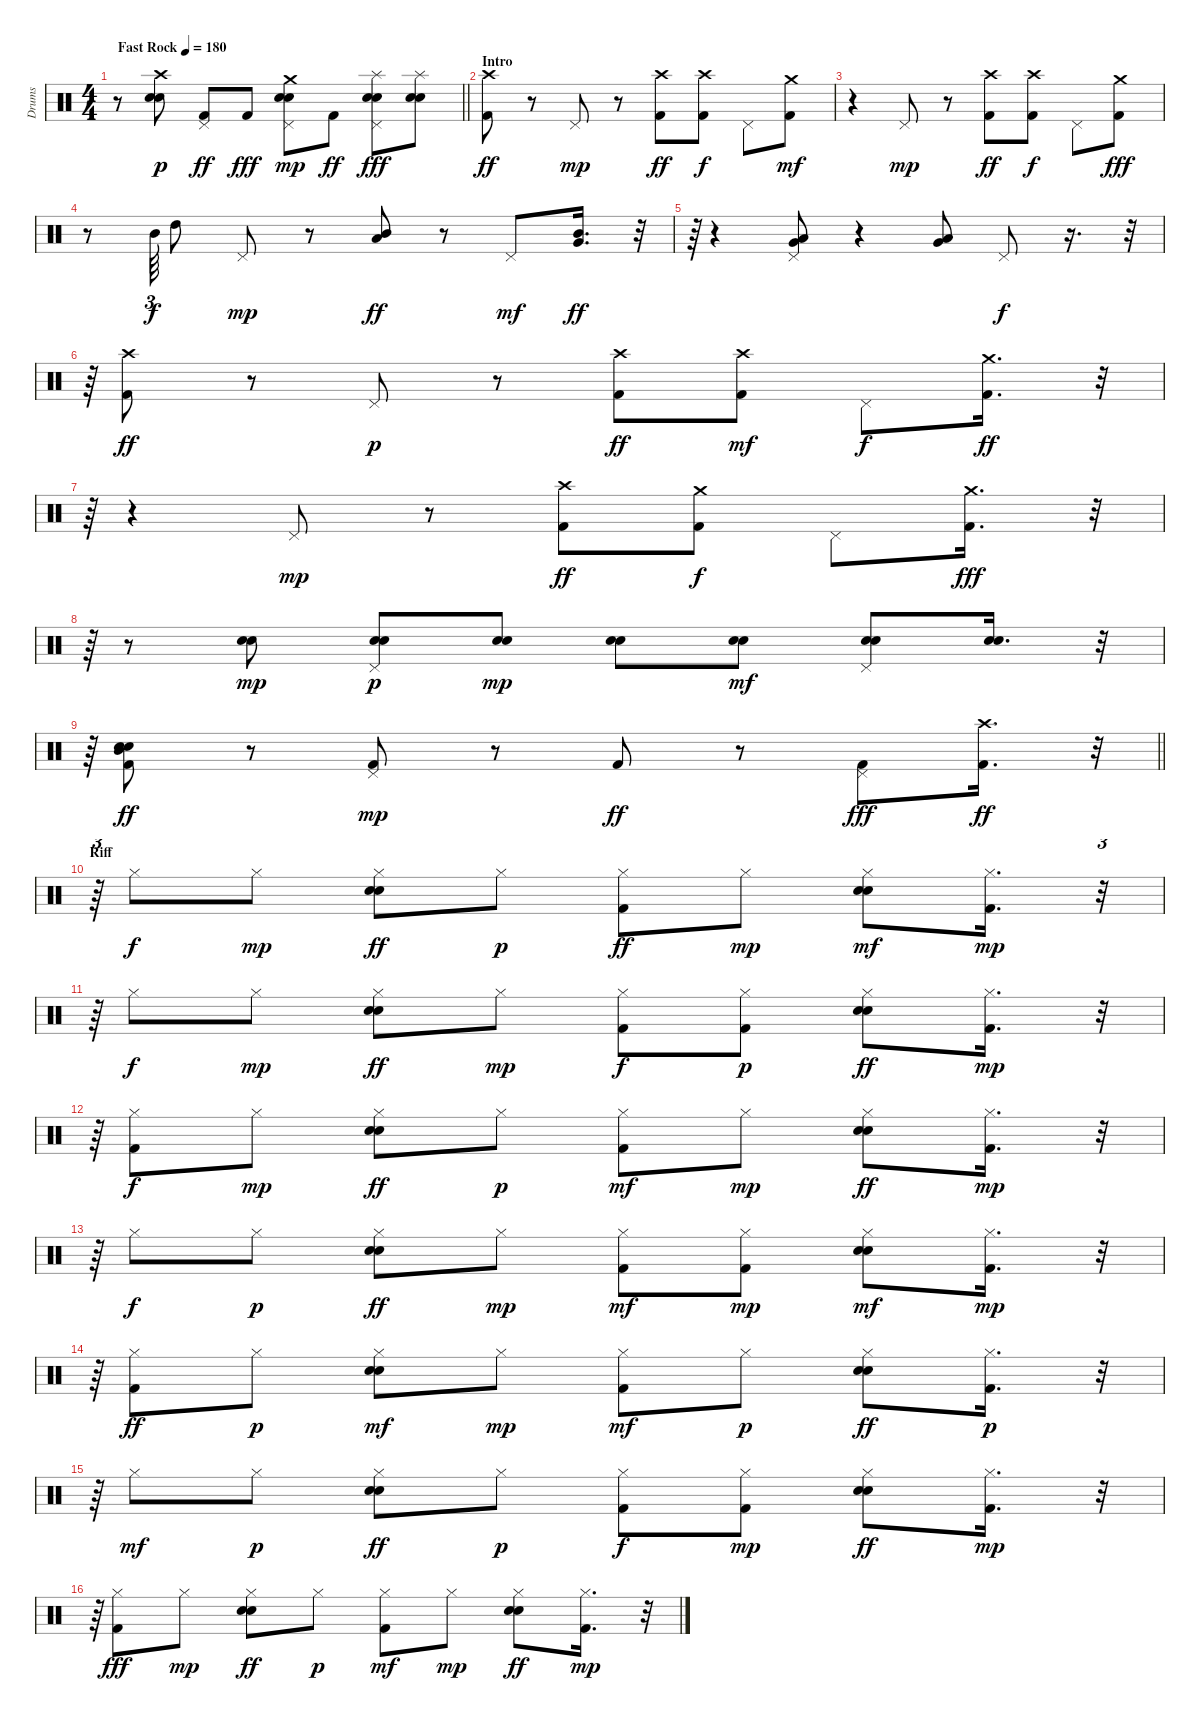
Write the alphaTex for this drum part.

\track ("Drums" "Drums") {instrument percussion}
\staff {score}
\articulation defaults
\ts (4 4)
\tempo (180 "Fast Rock")
\clef neutral
\barLineRight lightlight
\ks c
r.8{dy p} ("Electric Snare (hit)" "Snare (hit) 2" "Crash high (hit)").8{volume 14 balance 8} ("Kick (hit) 2" "Pedal Hi-Hat (hit)").8{dy ff} "Kick (hit) 2".8{dy fff} ("Electric Snare (hit)" "Snare (hit) 2" "Pedal Hi-Hat (hit)" "Crash medium (hit)").8{dy mp} "Kick (hit) 2".8{dy ff} ("Electric Snare (hit)" "Snare (hit) 2" "Pedal Hi-Hat (hit)" "Splash (hit)").8{dy fff} ("Electric Snare (hit)" "Snare (hit) 2" "Splash (hit)").8 |
\section ("" "Intro")
("Kick (hit) 2" "Crash high (hit)").8{dy ff} r.8 "Pedal Hi-Hat (hit)".8{dy mp} r.8 ("Kick (hit) 2" "Crash high (hit)").8{dy ff} ("Kick (hit) 2" "Crash high (hit)").8{dy f} "Pedal Hi-Hat (hit)".8 ("Kick (hit) 2" "Crash medium (hit)").8{dy mf} |
r.4 "Pedal Hi-Hat (hit)".8{dy mp} r.8 ("Kick (hit) 2" "Crash high (hit)").8{dy ff} ("Kick (hit) 2" "Crash high (hit)").8{dy f} "Pedal Hi-Hat (hit)".8 ("Kick (hit) 2" "Crash medium (hit)").8{dy fff} |
r.8 "Mid Tom (hit)".64{tu (3 2) dy f} "High Tom (hit)".8 "Pedal Hi-Hat (hit)".8{dy mp} r.8 ("Low Tom (hit)" "Mid Tom (hit)").8{dy ff} r.8 "Pedal Hi-Hat (hit)".8{dy mf} ("Very Low Tom (hit)" "Mid Tom (hit)").16{d dy ff} r.32{tu (3 2)} |
r.64{tu (3 2)} r.4 ("Very Low Tom (hit)" "Pedal Hi-Hat (hit)" "Low Tom (hit)").8 r.4 ("Low Floor Tom (hit)" "Very Low Tom (hit)").8 "Pedal Hi-Hat (hit)".8{dy f} r.16{d} r.32{tu (3 2)} |
r.64{tu (3 2)} ("Kick (hit) 2" "Crash high (hit)").8{dy ff} r.8 "Pedal Hi-Hat (hit)".8{dy p} r.8 ("Kick (hit) 2" "Crash high (hit)").8{dy ff} ("Kick (hit) 2" "Crash high (hit)").8{dy mf} "Pedal Hi-Hat (hit)".8{dy f} ("Kick (hit) 2" "Crash medium (hit)").16{d dy ff} r.32{tu (3 2)} |
r.64{tu (3 2)} r.4 "Pedal Hi-Hat (hit)".8{dy mp} r.8 ("Kick (hit) 2" "Crash high (hit)").8{dy ff} ("Kick (hit) 2" "Crash medium (hit)").8{dy f} "Pedal Hi-Hat (hit)".8 ("Kick (hit) 2" "Crash medium (hit)").16{d dy fff} r.32{tu (3 2)} |
r.64{tu (3 2)} r.8 ("Electric Snare (hit)" "Snare (hit) 2").8{dy mp} ("Electric Snare (hit)" "Snare (hit) 2" "Pedal Hi-Hat (hit)").8{dy p} ("Electric Snare (hit)" "Snare (hit) 2").8{dy mp} ("Electric Snare (hit)" "Snare (hit) 2").8 ("Electric Snare (hit)" "Snare (hit) 2").8{dy mf} ("Electric Snare (hit)" "Snare (hit) 2" "Pedal Hi-Hat (hit)").8 ("Electric Snare (hit)" "Snare (hit) 2").16{d} r.32{tu (3 2)} |
\barLineRight lightlight
r.64{tu (3 2)} ("Mid Tom (hit)" "Kick (hit) 2" "Electric Snare (hit)" "Snare (hit) 2").8{dy ff} r.8 ("Kick (hit) 2" "Pedal Hi-Hat (hit)").8{dy mp} r.8 "Kick (hit) 2".8{dy ff} r.8 ("Kick (hit) 2" "Pedal Hi-Hat (hit)").8{dy fff} ("Kick (hit) 2" "Crash high (hit)").16{d dy ff} r.32{tu (3 2)} |
\section ("" "Riff")
r.64{tu (3 2)} "Hi-Hat (closed)".8{dy f} "Hi-Hat (closed)".8{dy mp} ("Electric Snare (hit)" "Snare (hit) 2" "Hi-Hat (closed)").8{dy ff} "Hi-Hat (closed)".8{dy p} ("Kick (hit) 2" "Hi-Hat (closed)").8{dy ff} "Hi-Hat (closed)".8{dy mp} ("Electric Snare (hit)" "Snare (hit) 2" "Hi-Hat (closed)").8{dy mf} ("Kick (hit) 2" "Hi-Hat (closed)").16{d dy mp} r.32{tu (3 2)} |
r.64{tu (3 2)} "Hi-Hat (closed)".8{dy f} "Hi-Hat (closed)".8{dy mp} ("Electric Snare (hit)" "Snare (hit) 2" "Hi-Hat (closed)").8{dy ff} "Hi-Hat (closed)".8{dy mp} ("Kick (hit) 2" "Hi-Hat (closed)").8{dy f} ("Kick (hit) 2" "Hi-Hat (closed)").8{dy p} ("Electric Snare (hit)" "Snare (hit) 2" "Hi-Hat (closed)").8{dy ff} ("Kick (hit) 2" "Hi-Hat (closed)").16{d dy mp} r.32{tu (3 2)} |
r.64{tu (3 2)} ("Kick (hit) 2" "Hi-Hat (closed)").8{dy f} "Hi-Hat (closed)".8{dy mp} ("Electric Snare (hit)" "Snare (hit) 2" "Hi-Hat (closed)").8{dy ff} "Hi-Hat (closed)".8{dy p} ("Kick (hit) 2" "Hi-Hat (closed)").8{dy mf} "Hi-Hat (closed)".8{dy mp} ("Electric Snare (hit)" "Snare (hit) 2" "Hi-Hat (closed)").8{dy ff} ("Kick (hit) 2" "Hi-Hat (closed)").16{d dy mp} r.32{tu (3 2)} |
r.64{tu (3 2)} "Hi-Hat (closed)".8{dy f} "Hi-Hat (closed)".8{dy p} ("Electric Snare (hit)" "Snare (hit) 2" "Hi-Hat (closed)").8{dy ff} "Hi-Hat (closed)".8{dy mp} ("Kick (hit) 2" "Hi-Hat (closed)").8{dy mf} ("Kick (hit) 2" "Hi-Hat (closed)").8{dy mp} ("Electric Snare (hit)" "Snare (hit) 2" "Hi-Hat (closed)").8{dy mf} ("Kick (hit) 2" "Hi-Hat (closed)").16{d dy mp} r.32{tu (3 2)} |
r.64{tu (3 2)} ("Kick (hit) 2" "Hi-Hat (closed)").8{dy ff} "Hi-Hat (closed)".8{dy p} ("Electric Snare (hit)" "Snare (hit) 2" "Hi-Hat (closed)").8{dy mf} "Hi-Hat (closed)".8{dy mp} ("Kick (hit) 2" "Hi-Hat (closed)").8{dy mf} "Hi-Hat (closed)".8{dy p} ("Electric Snare (hit)" "Snare (hit) 2" "Hi-Hat (closed)").8{dy ff} ("Kick (hit) 2" "Hi-Hat (closed)").16{d dy p} r.32{tu (3 2)} |
r.64{tu (3 2)} "Hi-Hat (closed)".8{dy mf} "Hi-Hat (closed)".8{dy p} ("Electric Snare (hit)" "Snare (hit) 2" "Hi-Hat (closed)").8{dy ff} "Hi-Hat (closed)".8{dy p} ("Kick (hit) 2" "Hi-Hat (closed)").8{dy f} ("Kick (hit) 2" "Hi-Hat (closed)").8{dy mp} ("Electric Snare (hit)" "Snare (hit) 2" "Hi-Hat (closed)").8{dy ff} ("Kick (hit) 2" "Hi-Hat (closed)").16{d dy mp} r.32{tu (3 2)} |
r.64{tu (3 2)} ("Kick (hit) 2" "Hi-Hat (closed)").8{dy fff} "Hi-Hat (closed)".8{dy mp} ("Electric Snare (hit)" "Snare (hit) 2" "Hi-Hat (closed)").8{dy ff} "Hi-Hat (closed)".8{dy p} ("Kick (hit) 2" "Hi-Hat (closed)").8{dy mf} "Hi-Hat (closed)".8{dy mp} ("Electric Snare (hit)" "Snare (hit) 2" "Hi-Hat (closed)").8{dy ff} ("Kick (hit) 2" "Hi-Hat (closed)").16{d dy mp} r.32{tu (3 2)}
